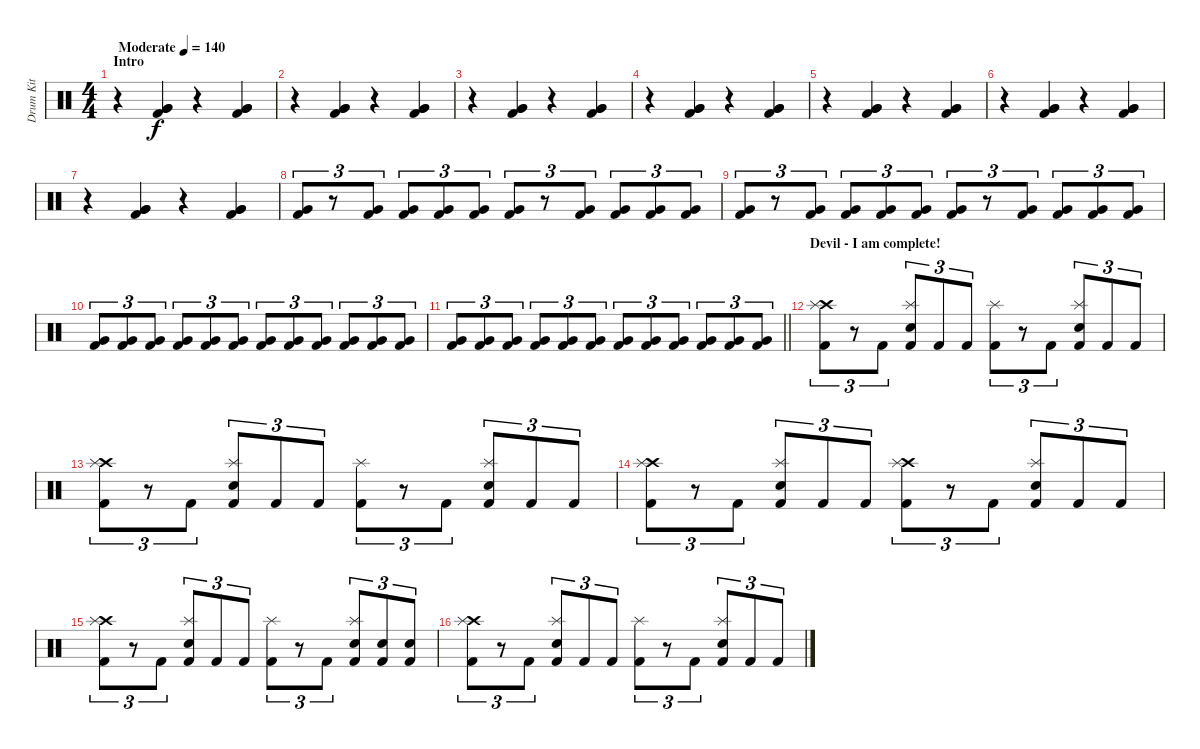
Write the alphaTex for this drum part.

\track ("Drum Kit" "Drum Kit") {instrument percussion}
\staff {score}
\articulation defaults
\ts (4 4)
\section ("" "Intro")
\tempo (140 "Moderate")
\clef neutral
\ks c
r.4{dy f} ("Kick (hit) 2" "Very Low Tom (hit)" "Very Low Tom (hit)").4 r.4 ("Kick (hit) 2" "Very Low Tom (hit)" "Very Low Tom (hit)").4 |
r.4 ("Kick (hit) 2" "Very Low Tom (hit)" "Very Low Tom (hit)").4 r.4 ("Kick (hit) 2" "Very Low Tom (hit)" "Very Low Tom (hit)").4 |
r.4 ("Kick (hit) 2" "Very Low Tom (hit)" "Very Low Tom (hit)").4 r.4 ("Kick (hit) 2" "Very Low Tom (hit)" "Very Low Tom (hit)").4 |
r.4 ("Kick (hit) 2" "Very Low Tom (hit)" "Very Low Tom (hit)").4 r.4 ("Kick (hit) 2" "Very Low Tom (hit)" "Very Low Tom (hit)").4 |
r.4 ("Kick (hit) 2" "Very Low Tom (hit)" "Very Low Tom (hit)").4 r.4 ("Kick (hit) 2" "Very Low Tom (hit)" "Very Low Tom (hit)").4 |
r.4 ("Kick (hit) 2" "Very Low Tom (hit)" "Very Low Tom (hit)").4 r.4 ("Kick (hit) 2" "Very Low Tom (hit)" "Very Low Tom (hit)").4 |
r.4 ("Kick (hit) 2" "Very Low Tom (hit)" "Very Low Tom (hit)").4 r.4 ("Kick (hit) 2" "Very Low Tom (hit)" "Very Low Tom (hit)").4 |
("Kick (hit) 2" "Very Low Tom (hit)").8{tu (3 2)} r.8{tu (3 2)} ("Kick (hit) 2" "Very Low Tom (hit)").8{tu (3 2)} ("Kick (hit) 2" "Very Low Tom (hit)").8{tu (3 2)} ("Kick (hit) 2" "Very Low Tom (hit)").8{tu (3 2)} ("Kick (hit) 2" "Very Low Tom (hit)").8{tu (3 2)} ("Kick (hit) 2" "Very Low Tom (hit)").8{tu (3 2)} r.8{tu (3 2)} ("Kick (hit) 2" "Very Low Tom (hit)").8{tu (3 2)} ("Kick (hit) 2" "Very Low Tom (hit)").8{tu (3 2)} ("Kick (hit) 2" "Very Low Tom (hit)").8{tu (3 2)} ("Kick (hit) 2" "Very Low Tom (hit)").8{tu (3 2)} |
("Kick (hit) 2" "Very Low Tom (hit)").8{tu (3 2)} r.8{tu (3 2)} ("Kick (hit) 2" "Very Low Tom (hit)").8{tu (3 2)} ("Kick (hit) 2" "Very Low Tom (hit)").8{tu (3 2)} ("Kick (hit) 2" "Very Low Tom (hit)").8{tu (3 2)} ("Kick (hit) 2" "Very Low Tom (hit)").8{tu (3 2)} ("Kick (hit) 2" "Very Low Tom (hit)").8{tu (3 2)} r.8{tu (3 2)} ("Kick (hit) 2" "Very Low Tom (hit)").8{tu (3 2)} ("Kick (hit) 2" "Very Low Tom (hit)").8{tu (3 2)} ("Kick (hit) 2" "Very Low Tom (hit)").8{tu (3 2)} ("Kick (hit) 2" "Very Low Tom (hit)").8{tu (3 2)} |
("Kick (hit) 2" "Very Low Tom (hit)").8{tu (3 2)} ("Kick (hit) 2" "Very Low Tom (hit)").8{tu (3 2)} ("Kick (hit) 2" "Very Low Tom (hit)").8{tu (3 2)} ("Kick (hit) 2" "Very Low Tom (hit)").8{tu (3 2)} ("Kick (hit) 2" "Very Low Tom (hit)").8{tu (3 2)} ("Kick (hit) 2" "Very Low Tom (hit)").8{tu (3 2)} ("Kick (hit) 2" "Very Low Tom (hit)").8{tu (3 2)} ("Kick (hit) 2" "Very Low Tom (hit)").8{tu (3 2)} ("Kick (hit) 2" "Very Low Tom (hit)").8{tu (3 2)} ("Kick (hit) 2" "Very Low Tom (hit)").8{tu (3 2)} ("Kick (hit) 2" "Very Low Tom (hit)").8{tu (3 2)} ("Kick (hit) 2" "Very Low Tom (hit)").8{tu (3 2)} |
\barLineRight lightlight
("Kick (hit) 2" "Very Low Tom (hit)").8{tu (3 2)} ("Kick (hit) 2" "Very Low Tom (hit)").8{tu (3 2)} ("Kick (hit) 2" "Very Low Tom (hit)").8{tu (3 2)} ("Kick (hit) 2" "Very Low Tom (hit)").8{tu (3 2)} ("Kick (hit) 2" "Very Low Tom (hit)").8{tu (3 2)} ("Kick (hit) 2" "Very Low Tom (hit)").8{tu (3 2)} ("Kick (hit) 2" "Very Low Tom (hit)").8{tu (3 2)} ("Kick (hit) 2" "Very Low Tom (hit)").8{tu (3 2)} ("Kick (hit) 2" "Very Low Tom (hit)").8{tu (3 2)} ("Kick (hit) 2" "Very Low Tom (hit)").8{tu (3 2)} ("Kick (hit) 2" "Very Low Tom (hit)").8{tu (3 2)} ("Kick (hit) 2" "Very Low Tom (hit)").8{tu (3 2)} |
\section ("" "Devil - I am complete!")
("Kick (hit) 2" "Crash high (hit)" "Splash (hit)").8{tu (3 2)} r.8{tu (3 2)} "Kick (hit) 2".8{tu (3 2)} ("Kick (hit) 2" "Electric Snare (hit)" "Splash (hit)").8{tu (3 2)} "Kick (hit) 2".8{tu (3 2)} "Kick (hit) 2".8{tu (3 2)} ("Kick (hit) 2" "Splash (hit)").8{tu (3 2)} r.8{tu (3 2)} "Kick (hit) 2".8{tu (3 2)} ("Kick (hit) 2" "Electric Snare (hit)" "Splash (hit)").8{tu (3 2)} "Kick (hit) 2".8{tu (3 2)} "Kick (hit) 2".8{tu (3 2)} |
("Kick (hit) 2" "Crash high (hit)" "Splash (hit)").8{tu (3 2)} r.8{tu (3 2)} "Kick (hit) 2".8{tu (3 2)} ("Kick (hit) 2" "Electric Snare (hit)" "Splash (hit)").8{tu (3 2)} "Kick (hit) 2".8{tu (3 2)} "Kick (hit) 2".8{tu (3 2)} ("Kick (hit) 2" "Splash (hit)").8{tu (3 2)} r.8{tu (3 2)} "Kick (hit) 2".8{tu (3 2)} ("Kick (hit) 2" "Electric Snare (hit)" "Splash (hit)").8{tu (3 2)} "Kick (hit) 2".8{tu (3 2)} "Kick (hit) 2".8{tu (3 2)} |
("Kick (hit) 2" "Crash high (hit)" "Splash (hit)").8{tu (3 2)} r.8{tu (3 2)} "Kick (hit) 2".8{tu (3 2)} ("Kick (hit) 2" "Electric Snare (hit)" "Splash (hit)").8{tu (3 2)} "Kick (hit) 2".8{tu (3 2)} "Kick (hit) 2".8{tu (3 2)} ("Kick (hit) 2" "Crash high (hit)" "Splash (hit)").8{tu (3 2)} r.8{tu (3 2)} "Kick (hit) 2".8{tu (3 2)} ("Kick (hit) 2" "Electric Snare (hit)" "Splash (hit)").8{tu (3 2)} "Kick (hit) 2".8{tu (3 2)} "Kick (hit) 2".8{tu (3 2)} |
("Kick (hit) 2" "Crash high (hit)" "Splash (hit)").8{tu (3 2)} r.8{tu (3 2)} "Kick (hit) 2".8{tu (3 2)} ("Kick (hit) 2" "Electric Snare (hit)" "Splash (hit)").8{tu (3 2)} "Kick (hit) 2".8{tu (3 2)} "Kick (hit) 2".8{tu (3 2)} ("Kick (hit) 2" "Splash (hit)").8{tu (3 2)} r.8{tu (3 2)} "Kick (hit) 2".8{tu (3 2)} ("Kick (hit) 2" "Electric Snare (hit)" "Splash (hit)").8{tu (3 2)} ("Kick (hit) 2" "Electric Snare (hit)").8{tu (3 2)} ("Kick (hit) 2" "Electric Snare (hit)").8{tu (3 2)} |
("Kick (hit) 2" "Crash high (hit)" "Splash (hit)").8{tu (3 2)} r.8{tu (3 2)} "Kick (hit) 2".8{tu (3 2)} ("Kick (hit) 2" "Electric Snare (hit)" "Splash (hit)").8{tu (3 2)} "Kick (hit) 2".8{tu (3 2)} "Kick (hit) 2".8{tu (3 2)} ("Kick (hit) 2" "Splash (hit)").8{tu (3 2)} r.8{tu (3 2)} "Kick (hit) 2".8{tu (3 2)} ("Kick (hit) 2" "Electric Snare (hit)" "Splash (hit)").8{tu (3 2)} "Kick (hit) 2".8{tu (3 2)} "Kick (hit) 2".8{tu (3 2)}
